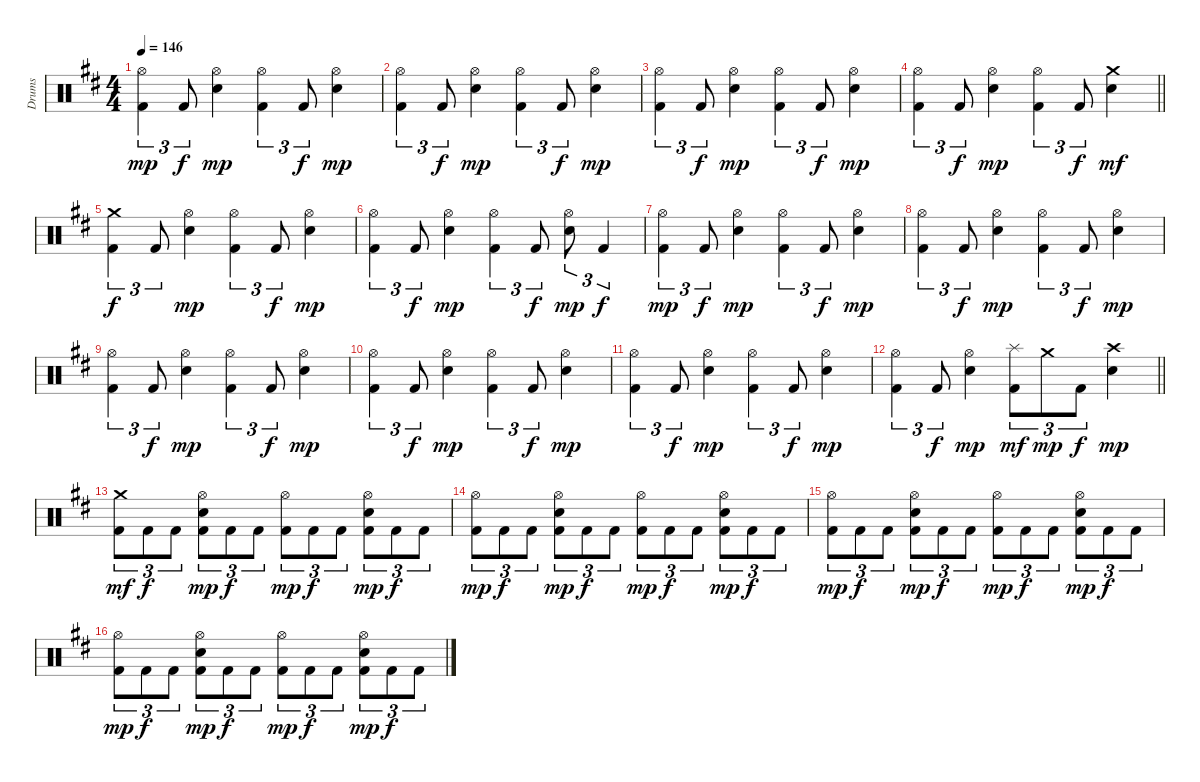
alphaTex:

\track ("Drums" "Drums") {instrument percussion}
\staff {score}
\articulation defaults
\ts (4 4)
\tempo 146
\clef neutral
\ks bminor
("Hi-Hat (open)" "Kick (hit) 2").4{tu (3 2) dy mp} "Kick (hit) 2".8{tu (3 2) dy f} ("Hi-Hat (open)" "Electric Snare (hit)").4{dy mp} ("Hi-Hat (open)" "Kick (hit) 2").4{tu (3 2)} "Kick (hit) 2".8{tu (3 2) dy f} ("Hi-Hat (open)" "Electric Snare (hit)").4{dy mp} |
("Hi-Hat (open)" "Kick (hit) 2").4{tu (3 2)} "Kick (hit) 2".8{tu (3 2) dy f} ("Hi-Hat (open)" "Electric Snare (hit)").4{dy mp} ("Hi-Hat (open)" "Kick (hit) 2").4{tu (3 2)} "Kick (hit) 2".8{tu (3 2) dy f} ("Hi-Hat (open)" "Electric Snare (hit)").4{dy mp} |
("Hi-Hat (open)" "Kick (hit) 2").4{tu (3 2)} "Kick (hit) 2".8{tu (3 2) dy f} ("Hi-Hat (open)" "Electric Snare (hit)").4{dy mp} ("Hi-Hat (open)" "Kick (hit) 2").4{tu (3 2)} "Kick (hit) 2".8{tu (3 2) dy f} ("Hi-Hat (open)" "Electric Snare (hit)").4{dy mp} |
\barLineRight lightlight
("Hi-Hat (open)" "Kick (hit) 2").4{tu (3 2)} "Kick (hit) 2".8{tu (3 2) dy f} ("Hi-Hat (open)" "Electric Snare (hit)").4{dy mp} ("Hi-Hat (open)" "Kick (hit) 2").4{tu (3 2)} "Kick (hit) 2".8{tu (3 2) dy f} ("Crash medium (hit)" "Electric Snare (hit)").4{dy mf} |
\section ("" "")
("Crash medium (hit)" "Kick (hit) 2").4{tu (3 2) dy f} "Kick (hit) 2".8{tu (3 2)} ("Hi-Hat (open)" "Electric Snare (hit)").4{dy mp} ("Hi-Hat (open)" "Kick (hit) 2").4{tu (3 2)} "Kick (hit) 2".8{tu (3 2) dy f} ("Hi-Hat (open)" "Electric Snare (hit)").4{dy mp} |
("Hi-Hat (open)" "Kick (hit) 2").4{tu (3 2)} "Kick (hit) 2".8{tu (3 2) dy f} ("Hi-Hat (open)" "Electric Snare (hit)").4{dy mp} ("Hi-Hat (open)" "Kick (hit) 2").4{tu (3 2)} "Kick (hit) 2".8{tu (3 2) dy f} ("Hi-Hat (open)" "Electric Snare (hit)").8{tu (3 2) dy mp} "Kick (hit) 2".4{tu (3 2) dy f} |
("Hi-Hat (open)" "Kick (hit) 2").4{tu (3 2) dy mp} "Kick (hit) 2".8{tu (3 2) dy f} ("Hi-Hat (open)" "Electric Snare (hit)").4{dy mp} ("Hi-Hat (open)" "Kick (hit) 2").4{tu (3 2)} "Kick (hit) 2".8{tu (3 2) dy f} ("Hi-Hat (open)" "Electric Snare (hit)").4{dy mp} |
("Hi-Hat (open)" "Kick (hit) 2").4{tu (3 2)} "Kick (hit) 2".8{tu (3 2) dy f} ("Hi-Hat (open)" "Electric Snare (hit)").4{dy mp} ("Hi-Hat (open)" "Kick (hit) 2").4{tu (3 2)} "Kick (hit) 2".8{tu (3 2) dy f} ("Hi-Hat (open)" "Electric Snare (hit)").4{dy mp} |
("Hi-Hat (open)" "Kick (hit) 2").4{tu (3 2)} "Kick (hit) 2".8{tu (3 2) dy f} ("Hi-Hat (open)" "Electric Snare (hit)").4{dy mp} ("Hi-Hat (open)" "Kick (hit) 2").4{tu (3 2)} "Kick (hit) 2".8{tu (3 2) dy f} ("Hi-Hat (open)" "Electric Snare (hit)").4{dy mp} |
("Hi-Hat (open)" "Kick (hit) 2").4{tu (3 2)} "Kick (hit) 2".8{tu (3 2) dy f} ("Hi-Hat (open)" "Electric Snare (hit)").4{dy mp} ("Hi-Hat (open)" "Kick (hit) 2").4{tu (3 2)} "Kick (hit) 2".8{tu (3 2) dy f} ("Hi-Hat (open)" "Electric Snare (hit)").4{dy mp} |
("Hi-Hat (open)" "Kick (hit) 2").4{tu (3 2)} "Kick (hit) 2".8{tu (3 2) dy f} ("Hi-Hat (open)" "Electric Snare (hit)").4{dy mp} ("Hi-Hat (open)" "Kick (hit) 2").4{tu (3 2)} "Kick (hit) 2".8{tu (3 2) dy f} ("Hi-Hat (open)" "Electric Snare (hit)").4{dy mp} |
\barLineRight lightlight
("Hi-Hat (open)" "Kick (hit) 2").4{tu (3 2)} "Kick (hit) 2".8{tu (3 2) dy f} ("Hi-Hat (open)" "Electric Snare (hit)").4{dy mp} ("Splash (hit)" "Kick (hit) 2").8{tu (3 2) dy mf} "Crash medium (hit)".8{tu (3 2) dy mp} "Kick (hit) 2".8{tu (3 2) dy f} ("Crash high (hit)" "Electric Snare (hit)").4{dy mp} |
\section ("" "")
("Crash medium (hit)" "Kick (hit) 2").8{tu (3 2) dy mf} "Kick (hit) 2".8{tu (3 2) dy f} "Kick (hit) 2".8{tu (3 2)} ("Hi-Hat (open)" "Electric Snare (hit)" "Kick (hit) 2").8{tu (3 2) dy mp} "Kick (hit) 2".8{tu (3 2) dy f} "Kick (hit) 2".8{tu (3 2)} ("Hi-Hat (open)" "Kick (hit) 2").8{tu (3 2) dy mp} "Kick (hit) 2".8{tu (3 2) dy f} "Kick (hit) 2".8{tu (3 2)} ("Hi-Hat (open)" "Electric Snare (hit)" "Kick (hit) 2").8{tu (3 2) dy mp} "Kick (hit) 2".8{tu (3 2) dy f} "Kick (hit) 2".8{tu (3 2)} |
("Hi-Hat (open)" "Kick (hit) 2").8{tu (3 2) dy mp} "Kick (hit) 2".8{tu (3 2) dy f} "Kick (hit) 2".8{tu (3 2)} ("Hi-Hat (open)" "Electric Snare (hit)" "Kick (hit) 2").8{tu (3 2) dy mp} "Kick (hit) 2".8{tu (3 2) dy f} "Kick (hit) 2".8{tu (3 2)} ("Hi-Hat (open)" "Kick (hit) 2").8{tu (3 2) dy mp} "Kick (hit) 2".8{tu (3 2) dy f} "Kick (hit) 2".8{tu (3 2)} ("Hi-Hat (open)" "Electric Snare (hit)" "Kick (hit) 2").8{tu (3 2) dy mp} "Kick (hit) 2".8{tu (3 2) dy f} "Kick (hit) 2".8{tu (3 2)} |
("Hi-Hat (open)" "Kick (hit) 2").8{tu (3 2) dy mp} "Kick (hit) 2".8{tu (3 2) dy f} "Kick (hit) 2".8{tu (3 2)} ("Hi-Hat (open)" "Electric Snare (hit)" "Kick (hit) 2").8{tu (3 2) dy mp} "Kick (hit) 2".8{tu (3 2) dy f} "Kick (hit) 2".8{tu (3 2)} ("Hi-Hat (open)" "Kick (hit) 2").8{tu (3 2) dy mp} "Kick (hit) 2".8{tu (3 2) dy f} "Kick (hit) 2".8{tu (3 2)} ("Hi-Hat (open)" "Electric Snare (hit)" "Kick (hit) 2").8{tu (3 2) dy mp} "Kick (hit) 2".8{tu (3 2) dy f} "Kick (hit) 2".8{tu (3 2)} |
("Hi-Hat (open)" "Kick (hit) 2").8{tu (3 2) dy mp} "Kick (hit) 2".8{tu (3 2) dy f} "Kick (hit) 2".8{tu (3 2)} ("Hi-Hat (open)" "Electric Snare (hit)" "Kick (hit) 2").8{tu (3 2) dy mp} "Kick (hit) 2".8{tu (3 2) dy f} "Kick (hit) 2".8{tu (3 2)} ("Hi-Hat (open)" "Kick (hit) 2").8{tu (3 2) dy mp} "Kick (hit) 2".8{tu (3 2) dy f} "Kick (hit) 2".8{tu (3 2)} ("Hi-Hat (open)" "Electric Snare (hit)" "Kick (hit) 2").8{tu (3 2) dy mp} "Kick (hit) 2".8{tu (3 2) dy f} "Kick (hit) 2".8{tu (3 2)}
